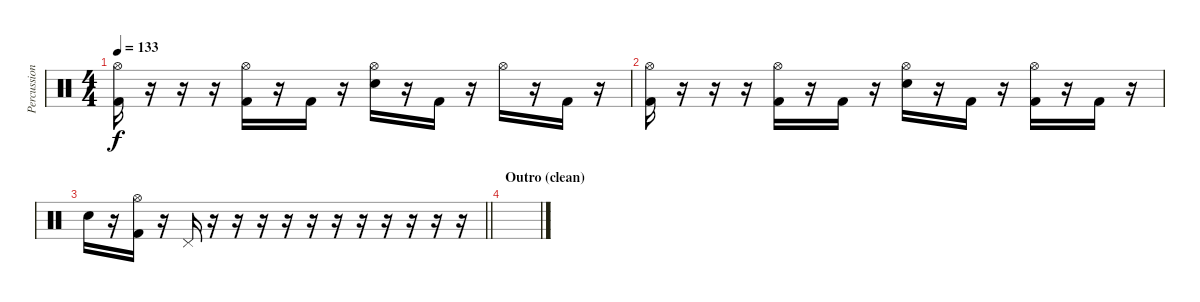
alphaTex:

\track ("Percussion" "Percussion") {instrument percussion}
\staff {score}
\articulation defaults
\ts (4 4)
\tempo 133
\clef neutral
\ks c
("Hi-Hat (open)" "Kick (hit) 2").16{dy f} r.16 r.16 r.16 ("Hi-Hat (open)" "Kick (hit) 2").16 r.16 "Kick (hit) 2".16 r.16 ("Hi-Hat (open)" "Electric Snare (hit)").16 r.16 "Kick (hit) 2".16 r.16 "Hi-Hat (open)".16 r.16 "Kick (hit) 2".16 r.16 |
("Hi-Hat (open)" "Kick (hit) 2").16 r.16 r.16 r.16 ("Hi-Hat (open)" "Kick (hit) 2").16 r.16 "Kick (hit) 2".16 r.16 ("Hi-Hat (open)" "Electric Snare (hit)").16 r.16 "Kick (hit) 2".16 r.16 ("Hi-Hat (open)" "Kick (hit) 2").16 r.16 "Kick (hit) 2".16 r.16 |
\barLineRight lightlight "Electric Snare (hit)".16
r.16 ("Hi-Hat (open)" "Kick (hit) 2").16 r.16 "Pedal Hi-Hat (hit)".16 r.16 r.16 r.16 r.16 r.16 r.16 r.16 r.16 r.16 r.16 r.16 |
\section ("" "Outro (clean)")
